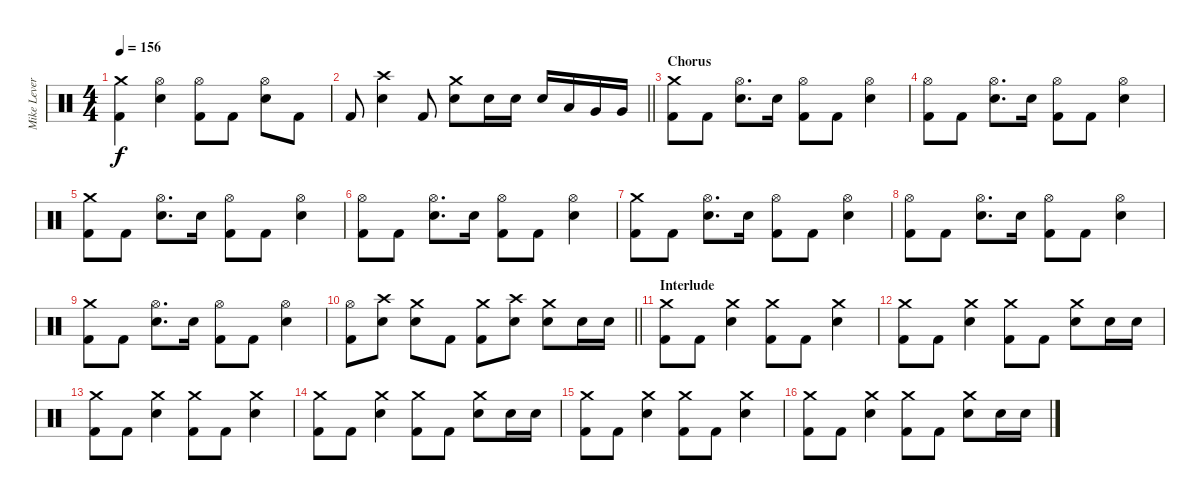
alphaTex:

\track ("Mike Leverence - Drums" "Mike Lever") {instrument percussion}
\staff {score}
\articulation defaults
\ts (4 4)
\tempo 156
\clef neutral
\ks c
("Crash medium (hit)" "Kick (hit) 2").4{dy f} ("Hi-Hat (open)" "Electric Snare (hit)").4 ("Hi-Hat (open)" "Kick (hit) 2").8 "Kick (hit) 2".8 ("Hi-Hat (open)" "Electric Snare (hit)").8 "Kick (hit) 2".8 |
\barLineRight lightlight "Kick (hit) 2".8
("Crash high (hit)" "Electric Snare (hit)").4 "Kick (hit) 2".8 ("Crash medium (hit)" "Electric Snare (hit)").8 "Electric Snare (hit)".16 "Electric Snare (hit)".16 "Electric Snare (hit)".16 "Low Tom (hit)".16 "Very Low Tom (hit)".16 "Very Low Tom (hit)".16 |
\section ("" "Chorus")
("Crash medium (hit)" "Kick (hit) 2").8 "Kick (hit) 2".8 ("Hi-Hat (open)" "Electric Snare (hit)").8{d} "Electric Snare (hit)".16 ("Hi-Hat (open)" "Kick (hit) 2").8 "Kick (hit) 2".8 ("Hi-Hat (open)" "Electric Snare (hit)").4 |
("Hi-Hat (open)" "Kick (hit) 2").8 "Kick (hit) 2".8 ("Hi-Hat (open)" "Electric Snare (hit)").8{d} "Electric Snare (hit)".16 ("Hi-Hat (open)" "Kick (hit) 2").8 "Kick (hit) 2".8 ("Hi-Hat (open)" "Electric Snare (hit)").4 |
("Crash medium (hit)" "Kick (hit) 2").8 "Kick (hit) 2".8 ("Hi-Hat (open)" "Electric Snare (hit)").8{d} "Electric Snare (hit)".16 ("Hi-Hat (open)" "Kick (hit) 2").8 "Kick (hit) 2".8 ("Hi-Hat (open)" "Electric Snare (hit)").4 |
("Hi-Hat (open)" "Kick (hit) 2").8 "Kick (hit) 2".8 ("Hi-Hat (open)" "Electric Snare (hit)").8{d} "Electric Snare (hit)".16 ("Hi-Hat (open)" "Kick (hit) 2").8 "Kick (hit) 2".8 ("Hi-Hat (open)" "Electric Snare (hit)").4 |
("Crash medium (hit)" "Kick (hit) 2").8 "Kick (hit) 2".8 ("Hi-Hat (open)" "Electric Snare (hit)").8{d} "Electric Snare (hit)".16 ("Hi-Hat (open)" "Kick (hit) 2").8 "Kick (hit) 2".8 ("Hi-Hat (open)" "Electric Snare (hit)").4 |
("Hi-Hat (open)" "Kick (hit) 2").8 "Kick (hit) 2".8 ("Hi-Hat (open)" "Electric Snare (hit)").8{d} "Electric Snare (hit)".16 ("Hi-Hat (open)" "Kick (hit) 2").8 "Kick (hit) 2".8 ("Hi-Hat (open)" "Electric Snare (hit)").4 |
("Crash medium (hit)" "Kick (hit) 2").8 "Kick (hit) 2".8 ("Hi-Hat (open)" "Electric Snare (hit)").8{d} "Electric Snare (hit)".16 ("Hi-Hat (open)" "Kick (hit) 2").8 "Kick (hit) 2".8 ("Hi-Hat (open)" "Electric Snare (hit)").4 |
\barLineRight lightlight
("Hi-Hat (open)" "Kick (hit) 2").8 ("Crash high (hit)" "Electric Snare (hit)").8 ("Crash medium (hit)" "Electric Snare (hit)").8 "Kick (hit) 2".8 ("Crash medium (hit)" "Kick (hit) 2").8 ("Crash high (hit)" "Electric Snare (hit)").8 ("Crash medium (hit)" "Electric Snare (hit)").8 "Electric Snare (hit)".16 "Electric Snare (hit)".16 |
\section ("" "Interlude")
("Crash medium (hit)" "Kick (hit) 2").8 "Kick (hit) 2".8 ("Crash medium (hit)" "Electric Snare (hit)").4 ("Crash medium (hit)" "Kick (hit) 2").8 "Kick (hit) 2".8 ("Crash medium (hit)" "Electric Snare (hit)").4 |
("Crash medium (hit)" "Kick (hit) 2").8 "Kick (hit) 2".8 ("Crash medium (hit)" "Electric Snare (hit)").4 ("Crash medium (hit)" "Kick (hit) 2").8 "Kick (hit) 2".8 ("Crash medium (hit)" "Electric Snare (hit)").8 "Electric Snare (hit)".16 "Electric Snare (hit)".16 |
("Crash medium (hit)" "Kick (hit) 2").8 "Kick (hit) 2".8 ("Crash medium (hit)" "Electric Snare (hit)").4 ("Crash medium (hit)" "Kick (hit) 2").8 "Kick (hit) 2".8 ("Crash medium (hit)" "Electric Snare (hit)").4 |
("Crash medium (hit)" "Kick (hit) 2").8 "Kick (hit) 2".8 ("Crash medium (hit)" "Electric Snare (hit)").4 ("Crash medium (hit)" "Kick (hit) 2").8 "Kick (hit) 2".8 ("Crash medium (hit)" "Electric Snare (hit)").8 "Electric Snare (hit)".16 "Electric Snare (hit)".16 |
("Crash medium (hit)" "Kick (hit) 2").8 "Kick (hit) 2".8 ("Crash medium (hit)" "Electric Snare (hit)").4 ("Crash medium (hit)" "Kick (hit) 2").8 "Kick (hit) 2".8 ("Crash medium (hit)" "Electric Snare (hit)").4 |
("Crash medium (hit)" "Kick (hit) 2").8 "Kick (hit) 2".8 ("Crash medium (hit)" "Electric Snare (hit)").4 ("Crash medium (hit)" "Kick (hit) 2").8 "Kick (hit) 2".8 ("Crash medium (hit)" "Electric Snare (hit)").8 "Electric Snare (hit)".16 "Electric Snare (hit)".16
